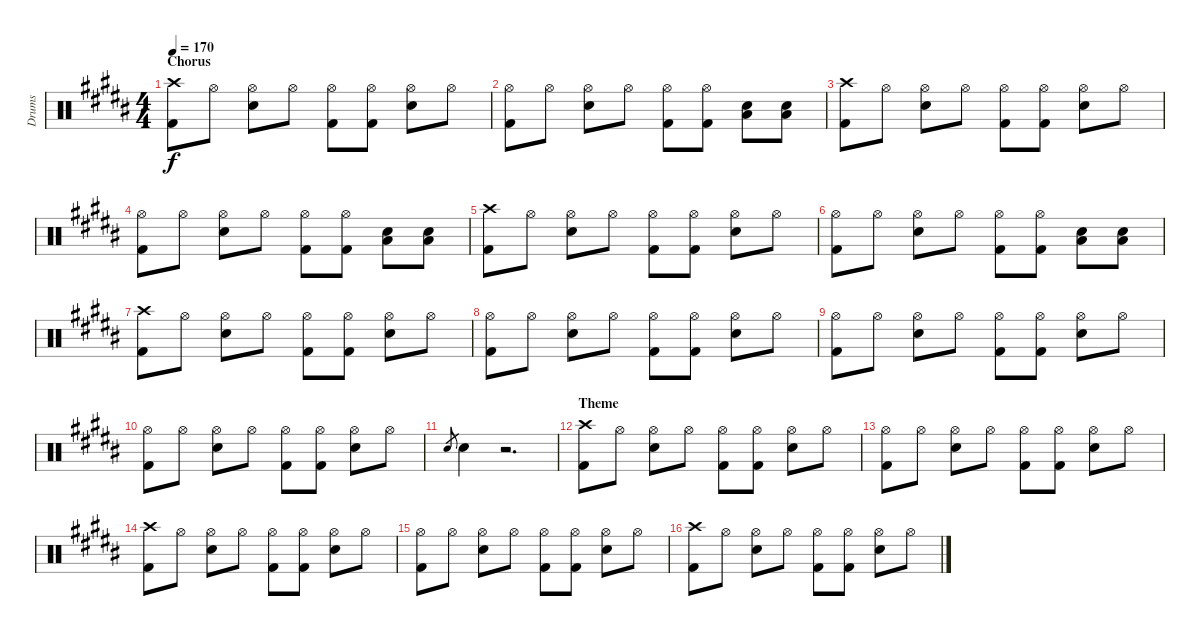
\track ("Drums" "Drums") {instrument percussion}
\staff {score}
\articulation defaults
\ts (4 4)
\section ("" "Chorus")
\tempo 170
\clef neutral
\ks b
("Crash high (hit)" "Kick (hit) 2").8{dy f} "Hi-Hat (open)".8 ("Hi-Hat (open)" "Electric Snare (hit)").8 "Hi-Hat (open)".8 ("Hi-Hat (open)" "Kick (hit) 2").8 ("Hi-Hat (open)" "Kick (hit) 2").8 ("Hi-Hat (open)" "Electric Snare (hit)").8 "Hi-Hat (open)".8 |
("Hi-Hat (open)" "Kick (hit) 2").8 "Hi-Hat (open)".8 ("Hi-Hat (open)" "Electric Snare (hit)").8 "Hi-Hat (open)".8 ("Hi-Hat (open)" "Kick (hit) 2").8 ("Hi-Hat (open)" "Kick (hit) 2").8 ("Low Tom (hit)" "Electric Snare (hit)").8 ("Low Tom (hit)" "Electric Snare (hit)").8 |
("Crash high (hit)" "Kick (hit) 2").8 "Hi-Hat (open)".8 ("Hi-Hat (open)" "Electric Snare (hit)").8 "Hi-Hat (open)".8 ("Hi-Hat (open)" "Kick (hit) 2").8 ("Hi-Hat (open)" "Kick (hit) 2").8 ("Hi-Hat (open)" "Electric Snare (hit)").8 "Hi-Hat (open)".8 |
("Hi-Hat (open)" "Kick (hit) 2").8 "Hi-Hat (open)".8 ("Hi-Hat (open)" "Electric Snare (hit)").8 "Hi-Hat (open)".8 ("Hi-Hat (open)" "Kick (hit) 2").8 ("Hi-Hat (open)" "Kick (hit) 2").8 ("Low Tom (hit)" "Electric Snare (hit)").8 ("Low Tom (hit)" "Electric Snare (hit)").8 |
("Crash high (hit)" "Kick (hit) 2").8 "Hi-Hat (open)".8 ("Hi-Hat (open)" "Electric Snare (hit)").8 "Hi-Hat (open)".8 ("Hi-Hat (open)" "Kick (hit) 2").8 ("Hi-Hat (open)" "Kick (hit) 2").8 ("Hi-Hat (open)" "Electric Snare (hit)").8 "Hi-Hat (open)".8 |
("Hi-Hat (open)" "Kick (hit) 2").8 "Hi-Hat (open)".8 ("Hi-Hat (open)" "Electric Snare (hit)").8 "Hi-Hat (open)".8 ("Hi-Hat (open)" "Kick (hit) 2").8 ("Hi-Hat (open)" "Kick (hit) 2").8 ("Low Tom (hit)" "Electric Snare (hit)").8 ("Low Tom (hit)" "Electric Snare (hit)").8 |
("Crash high (hit)" "Kick (hit) 2").8 "Hi-Hat (open)".8 ("Hi-Hat (open)" "Electric Snare (hit)").8 "Hi-Hat (open)".8 ("Hi-Hat (open)" "Kick (hit) 2").8 ("Hi-Hat (open)" "Kick (hit) 2").8 ("Hi-Hat (open)" "Electric Snare (hit)").8 "Hi-Hat (open)".8 |
("Hi-Hat (open)" "Kick (hit) 2").8 "Hi-Hat (open)".8 ("Hi-Hat (open)" "Electric Snare (hit)").8 "Hi-Hat (open)".8 ("Hi-Hat (open)" "Kick (hit) 2").8 ("Hi-Hat (open)" "Kick (hit) 2").8 ("Hi-Hat (open)" "Electric Snare (hit)").8 "Hi-Hat (open)".8 |
("Hi-Hat (open)" "Kick (hit) 2").8 "Hi-Hat (open)".8 ("Hi-Hat (open)" "Electric Snare (hit)").8 "Hi-Hat (open)".8 ("Hi-Hat (open)" "Kick (hit) 2").8 ("Hi-Hat (open)" "Kick (hit) 2").8 ("Hi-Hat (open)" "Electric Snare (hit)").8 "Hi-Hat (open)".8 |
("Hi-Hat (open)" "Kick (hit) 2").8 "Hi-Hat (open)".8 ("Hi-Hat (open)" "Electric Snare (hit)").8 "Hi-Hat (open)".8 ("Hi-Hat (open)" "Kick (hit) 2").8 ("Hi-Hat (open)" "Kick (hit) 2").8 ("Hi-Hat (open)" "Electric Snare (hit)").8 "Hi-Hat (open)".8 |
"Electric Snare (hit)".8{gr} "Electric Snare (hit)".4 r.2{d} |
\section ("" "Theme")
("Crash high (hit)" "Kick (hit) 2").8 "Hi-Hat (open)".8 ("Hi-Hat (open)" "Electric Snare (hit)").8 "Hi-Hat (open)".8 ("Hi-Hat (open)" "Kick (hit) 2").8 ("Hi-Hat (open)" "Kick (hit) 2").8 ("Hi-Hat (open)" "Electric Snare (hit)").8 "Hi-Hat (open)".8 |
("Hi-Hat (open)" "Kick (hit) 2").8 "Hi-Hat (open)".8 ("Hi-Hat (open)" "Electric Snare (hit)").8 "Hi-Hat (open)".8 ("Hi-Hat (open)" "Kick (hit) 2").8 ("Hi-Hat (open)" "Kick (hit) 2").8 ("Hi-Hat (open)" "Electric Snare (hit)").8 "Hi-Hat (open)".8 |
("Crash high (hit)" "Kick (hit) 2").8 "Hi-Hat (open)".8 ("Hi-Hat (open)" "Electric Snare (hit)").8 "Hi-Hat (open)".8 ("Hi-Hat (open)" "Kick (hit) 2").8 ("Hi-Hat (open)" "Kick (hit) 2").8 ("Hi-Hat (open)" "Electric Snare (hit)").8 "Hi-Hat (open)".8 |
("Hi-Hat (open)" "Kick (hit) 2").8 "Hi-Hat (open)".8 ("Hi-Hat (open)" "Electric Snare (hit)").8 "Hi-Hat (open)".8 ("Hi-Hat (open)" "Kick (hit) 2").8 ("Hi-Hat (open)" "Kick (hit) 2").8 ("Hi-Hat (open)" "Electric Snare (hit)").8 "Hi-Hat (open)".8 |
("Crash high (hit)" "Kick (hit) 2").8 "Hi-Hat (open)".8 ("Hi-Hat (open)" "Electric Snare (hit)").8 "Hi-Hat (open)".8 ("Hi-Hat (open)" "Kick (hit) 2").8 ("Hi-Hat (open)" "Kick (hit) 2").8 ("Hi-Hat (open)" "Electric Snare (hit)").8 "Hi-Hat (open)".8
